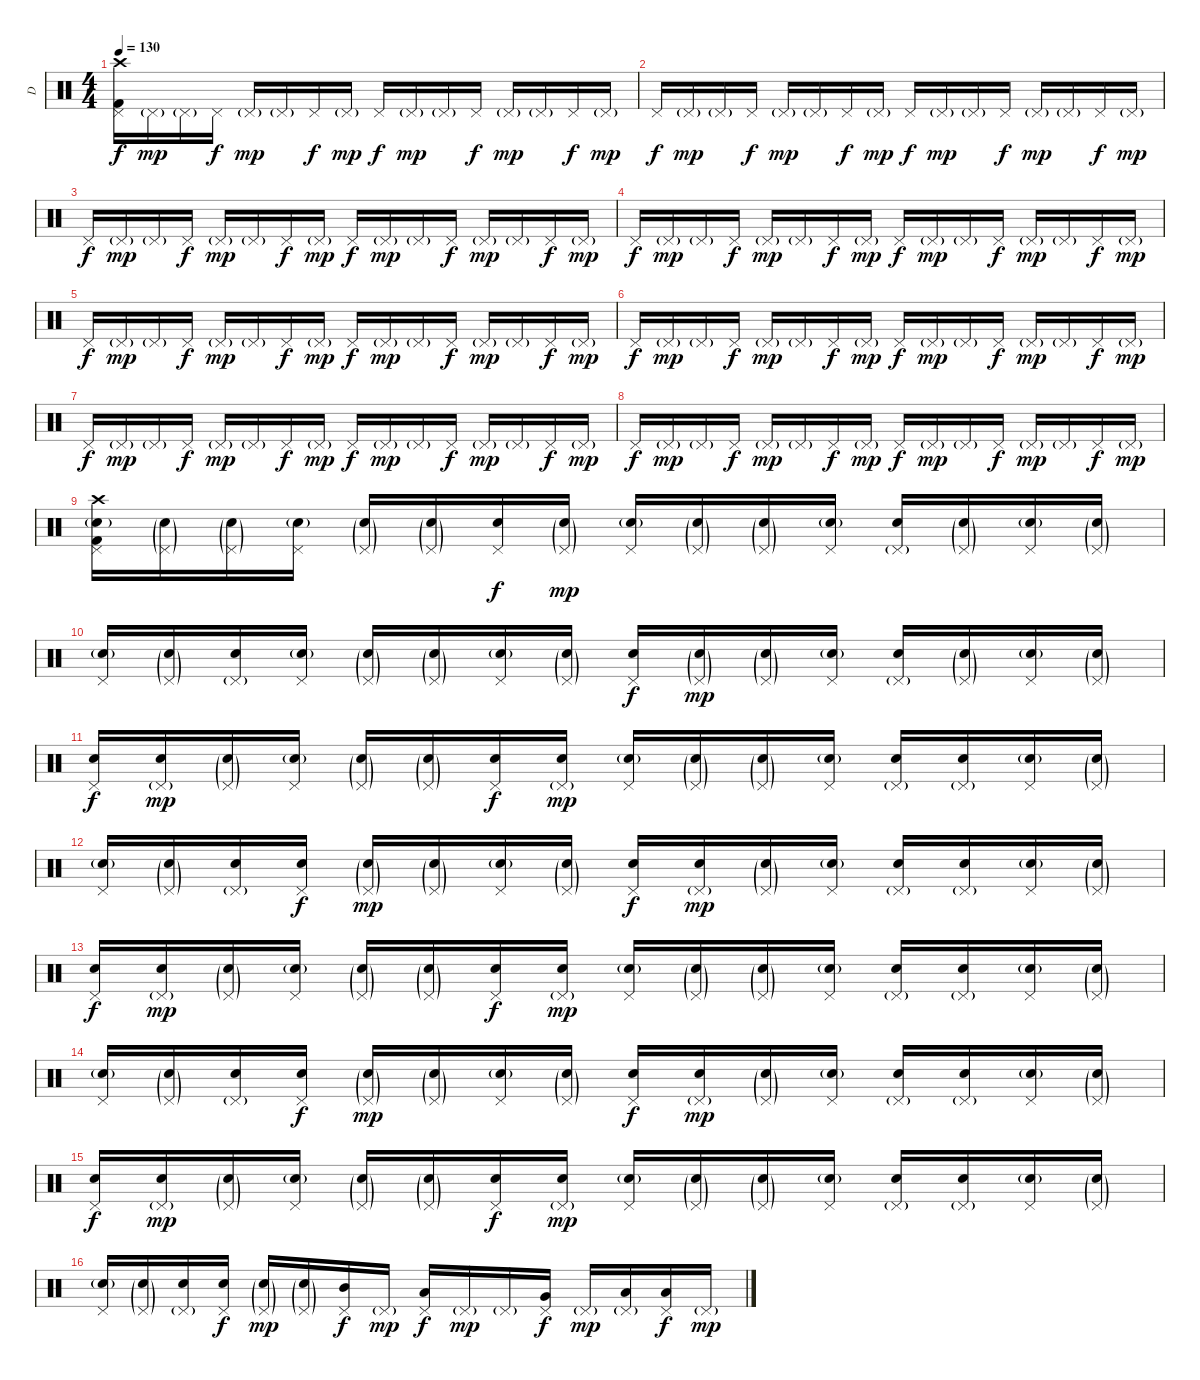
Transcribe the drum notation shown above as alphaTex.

\track ("D" "D") {instrument percussion}
\staff {score}
\articulation defaults
\ts (4 4)
\tempo 130
\clef neutral
\ks c
("Crash high (hit)" "Kick (hit) 2" "Pedal Hi-Hat (hit)").16{dy f} "Pedal Hi-Hat (hit)"{g}.16{dy mp} "Pedal Hi-Hat (hit)"{g}.16 "Pedal Hi-Hat (hit)".16{dy f} "Pedal Hi-Hat (hit)"{g}.16{dy mp} "Pedal Hi-Hat (hit)"{g}.16 "Pedal Hi-Hat (hit)".16{dy f} "Pedal Hi-Hat (hit)"{g}.16{dy mp} "Pedal Hi-Hat (hit)".16{dy f} "Pedal Hi-Hat (hit)"{g}.16{dy mp} "Pedal Hi-Hat (hit)"{g}.16 "Pedal Hi-Hat (hit)".16{dy f} "Pedal Hi-Hat (hit)"{g}.16{dy mp} "Pedal Hi-Hat (hit)"{g}.16 "Pedal Hi-Hat (hit)".16{dy f} "Pedal Hi-Hat (hit)"{g}.16{dy mp} |
"Pedal Hi-Hat (hit)".16{dy f} "Pedal Hi-Hat (hit)"{g}.16{dy mp} "Pedal Hi-Hat (hit)"{g}.16 "Pedal Hi-Hat (hit)".16{dy f} "Pedal Hi-Hat (hit)"{g}.16{dy mp} "Pedal Hi-Hat (hit)"{g}.16 "Pedal Hi-Hat (hit)".16{dy f} "Pedal Hi-Hat (hit)"{g}.16{dy mp} "Pedal Hi-Hat (hit)".16{dy f} "Pedal Hi-Hat (hit)"{g}.16{dy mp} "Pedal Hi-Hat (hit)"{g}.16 "Pedal Hi-Hat (hit)".16{dy f} "Pedal Hi-Hat (hit)"{g}.16{dy mp} "Pedal Hi-Hat (hit)"{g}.16 "Pedal Hi-Hat (hit)".16{dy f} "Pedal Hi-Hat (hit)"{g}.16{dy mp} |
"Pedal Hi-Hat (hit)".16{dy f} "Pedal Hi-Hat (hit)"{g}.16{dy mp} "Pedal Hi-Hat (hit)"{g}.16 "Pedal Hi-Hat (hit)".16{dy f} "Pedal Hi-Hat (hit)"{g}.16{dy mp} "Pedal Hi-Hat (hit)"{g}.16 "Pedal Hi-Hat (hit)".16{dy f} "Pedal Hi-Hat (hit)"{g}.16{dy mp} "Pedal Hi-Hat (hit)".16{dy f} "Pedal Hi-Hat (hit)"{g}.16{dy mp} "Pedal Hi-Hat (hit)"{g}.16 "Pedal Hi-Hat (hit)".16{dy f} "Pedal Hi-Hat (hit)"{g}.16{dy mp} "Pedal Hi-Hat (hit)"{g}.16 "Pedal Hi-Hat (hit)".16{dy f} "Pedal Hi-Hat (hit)"{g}.16{dy mp} |
"Pedal Hi-Hat (hit)".16{dy f} "Pedal Hi-Hat (hit)"{g}.16{dy mp} "Pedal Hi-Hat (hit)"{g}.16 "Pedal Hi-Hat (hit)".16{dy f} "Pedal Hi-Hat (hit)"{g}.16{dy mp} "Pedal Hi-Hat (hit)"{g}.16 "Pedal Hi-Hat (hit)".16{dy f} "Pedal Hi-Hat (hit)"{g}.16{dy mp} "Pedal Hi-Hat (hit)".16{dy f} "Pedal Hi-Hat (hit)"{g}.16{dy mp} "Pedal Hi-Hat (hit)"{g}.16 "Pedal Hi-Hat (hit)".16{dy f} "Pedal Hi-Hat (hit)"{g}.16{dy mp} "Pedal Hi-Hat (hit)"{g}.16 "Pedal Hi-Hat (hit)".16{dy f} "Pedal Hi-Hat (hit)"{g}.16{dy mp} |
"Pedal Hi-Hat (hit)".16{dy f} "Pedal Hi-Hat (hit)"{g}.16{dy mp} "Pedal Hi-Hat (hit)"{g}.16 "Pedal Hi-Hat (hit)".16{dy f} "Pedal Hi-Hat (hit)"{g}.16{dy mp} "Pedal Hi-Hat (hit)"{g}.16 "Pedal Hi-Hat (hit)".16{dy f} "Pedal Hi-Hat (hit)"{g}.16{dy mp} "Pedal Hi-Hat (hit)".16{dy f} "Pedal Hi-Hat (hit)"{g}.16{dy mp} "Pedal Hi-Hat (hit)"{g}.16 "Pedal Hi-Hat (hit)".16{dy f} "Pedal Hi-Hat (hit)"{g}.16{dy mp} "Pedal Hi-Hat (hit)"{g}.16 "Pedal Hi-Hat (hit)".16{dy f} "Pedal Hi-Hat (hit)"{g}.16{dy mp} |
"Pedal Hi-Hat (hit)".16{dy f} "Pedal Hi-Hat (hit)"{g}.16{dy mp} "Pedal Hi-Hat (hit)"{g}.16 "Pedal Hi-Hat (hit)".16{dy f} "Pedal Hi-Hat (hit)"{g}.16{dy mp} "Pedal Hi-Hat (hit)"{g}.16 "Pedal Hi-Hat (hit)".16{dy f} "Pedal Hi-Hat (hit)"{g}.16{dy mp} "Pedal Hi-Hat (hit)".16{dy f} "Pedal Hi-Hat (hit)"{g}.16{dy mp} "Pedal Hi-Hat (hit)"{g}.16 "Pedal Hi-Hat (hit)".16{dy f} "Pedal Hi-Hat (hit)"{g}.16{dy mp} "Pedal Hi-Hat (hit)"{g}.16 "Pedal Hi-Hat (hit)".16{dy f} "Pedal Hi-Hat (hit)"{g}.16{dy mp} |
"Pedal Hi-Hat (hit)".16{dy f} "Pedal Hi-Hat (hit)"{g}.16{dy mp} "Pedal Hi-Hat (hit)"{g}.16 "Pedal Hi-Hat (hit)".16{dy f} "Pedal Hi-Hat (hit)"{g}.16{dy mp} "Pedal Hi-Hat (hit)"{g}.16 "Pedal Hi-Hat (hit)".16{dy f} "Pedal Hi-Hat (hit)"{g}.16{dy mp} "Pedal Hi-Hat (hit)".16{dy f} "Pedal Hi-Hat (hit)"{g}.16{dy mp} "Pedal Hi-Hat (hit)"{g}.16 "Pedal Hi-Hat (hit)".16{dy f} "Pedal Hi-Hat (hit)"{g}.16{dy mp} "Pedal Hi-Hat (hit)"{g}.16 "Pedal Hi-Hat (hit)".16{dy f} "Pedal Hi-Hat (hit)"{g}.16{dy mp} |
"Pedal Hi-Hat (hit)".16{dy f} "Pedal Hi-Hat (hit)"{g}.16{dy mp} "Pedal Hi-Hat (hit)"{g}.16 "Pedal Hi-Hat (hit)".16{dy f} "Pedal Hi-Hat (hit)"{g}.16{dy mp} "Pedal Hi-Hat (hit)"{g}.16 "Pedal Hi-Hat (hit)".16{dy f} "Pedal Hi-Hat (hit)"{g}.16{dy mp} "Pedal Hi-Hat (hit)".16{dy f} "Pedal Hi-Hat (hit)"{g}.16{dy mp} "Pedal Hi-Hat (hit)"{g}.16 "Pedal Hi-Hat (hit)".16{dy f} "Pedal Hi-Hat (hit)"{g}.16{dy mp} "Pedal Hi-Hat (hit)"{g}.16 "Pedal Hi-Hat (hit)".16{dy f} "Pedal Hi-Hat (hit)"{g}.16{dy mp} |
("Crash high (hit)" "Electric Snare (hit)"{g} "Kick (hit) 2" "Pedal Hi-Hat (hit)").16 ("Electric Snare (hit)"{g} "Pedal Hi-Hat (hit)"{g}).16 ("Electric Snare (hit)"{g} "Pedal Hi-Hat (hit)"{g}).16 ("Electric Snare (hit)"{g} "Pedal Hi-Hat (hit)").16 ("Electric Snare (hit)"{g} "Pedal Hi-Hat (hit)"{g}).16 ("Electric Snare (hit)"{g} "Pedal Hi-Hat (hit)"{g}).16 ("Electric Snare (hit)" "Pedal Hi-Hat (hit)").16{dy f} ("Electric Snare (hit)"{g} "Pedal Hi-Hat (hit)"{g}).16{dy mp} ("Electric Snare (hit)"{g} "Pedal Hi-Hat (hit)").16 ("Electric Snare (hit)"{g} "Pedal Hi-Hat (hit)"{g}).16 ("Electric Snare (hit)"{g} "Pedal Hi-Hat (hit)"{g}).16 ("Electric Snare (hit)"{g} "Pedal Hi-Hat (hit)").16 ("Electric Snare (hit)" "Pedal Hi-Hat (hit)"{g}).16 ("Electric Snare (hit)"{g} "Pedal Hi-Hat (hit)"{g}).16 ("Electric Snare (hit)"{g} "Pedal Hi-Hat (hit)").16 ("Electric Snare (hit)"{g} "Pedal Hi-Hat (hit)"{g}).16 |
("Electric Snare (hit)"{g} "Pedal Hi-Hat (hit)").16 ("Electric Snare (hit)"{g} "Pedal Hi-Hat (hit)"{g}).16 ("Electric Snare (hit)" "Pedal Hi-Hat (hit)"{g}).16 ("Electric Snare (hit)"{g} "Pedal Hi-Hat (hit)").16 ("Electric Snare (hit)"{g} "Pedal Hi-Hat (hit)"{g}).16 ("Electric Snare (hit)"{g} "Pedal Hi-Hat (hit)"{g}).16 ("Electric Snare (hit)"{g} "Pedal Hi-Hat (hit)").16 ("Electric Snare (hit)"{g} "Pedal Hi-Hat (hit)"{g}).16 ("Electric Snare (hit)" "Pedal Hi-Hat (hit)").16{dy f} ("Electric Snare (hit)"{g} "Pedal Hi-Hat (hit)"{g}).16{dy mp} ("Electric Snare (hit)"{g} "Pedal Hi-Hat (hit)"{g}).16 ("Electric Snare (hit)"{g} "Pedal Hi-Hat (hit)").16 ("Electric Snare (hit)" "Pedal Hi-Hat (hit)"{g}).16 ("Electric Snare (hit)"{g} "Pedal Hi-Hat (hit)"{g}).16 ("Electric Snare (hit)"{g} "Pedal Hi-Hat (hit)").16 ("Electric Snare (hit)"{g} "Pedal Hi-Hat (hit)"{g}).16 |
("Electric Snare (hit)" "Pedal Hi-Hat (hit)").16{dy f} ("Electric Snare (hit)" "Pedal Hi-Hat (hit)"{g}).16{dy mp} ("Electric Snare (hit)"{g} "Pedal Hi-Hat (hit)"{g}).16 ("Electric Snare (hit)"{g} "Pedal Hi-Hat (hit)").16 ("Electric Snare (hit)"{g} "Pedal Hi-Hat (hit)"{g}).16 ("Electric Snare (hit)"{g} "Pedal Hi-Hat (hit)"{g}).16 ("Electric Snare (hit)" "Pedal Hi-Hat (hit)").16{dy f} ("Electric Snare (hit)" "Pedal Hi-Hat (hit)"{g}).16{dy mp} ("Electric Snare (hit)"{g} "Pedal Hi-Hat (hit)").16 ("Electric Snare (hit)"{g} "Pedal Hi-Hat (hit)"{g}).16 ("Electric Snare (hit)"{g} "Pedal Hi-Hat (hit)"{g}).16 ("Electric Snare (hit)"{g} "Pedal Hi-Hat (hit)").16 ("Electric Snare (hit)" "Pedal Hi-Hat (hit)"{g}).16 ("Electric Snare (hit)" "Pedal Hi-Hat (hit)"{g}).16 ("Electric Snare (hit)"{g} "Pedal Hi-Hat (hit)").16 ("Electric Snare (hit)"{g} "Pedal Hi-Hat (hit)"{g}).16 |
("Electric Snare (hit)"{g} "Pedal Hi-Hat (hit)").16 ("Electric Snare (hit)"{g} "Pedal Hi-Hat (hit)"{g}).16 ("Electric Snare (hit)" "Pedal Hi-Hat (hit)"{g}).16 ("Electric Snare (hit)" "Pedal Hi-Hat (hit)").16{dy f} ("Electric Snare (hit)"{g} "Pedal Hi-Hat (hit)"{g}).16{dy mp} ("Electric Snare (hit)"{g} "Pedal Hi-Hat (hit)"{g}).16 ("Electric Snare (hit)"{g} "Pedal Hi-Hat (hit)").16 ("Electric Snare (hit)"{g} "Pedal Hi-Hat (hit)"{g}).16 ("Electric Snare (hit)" "Pedal Hi-Hat (hit)").16{dy f} ("Electric Snare (hit)" "Pedal Hi-Hat (hit)"{g}).16{dy mp} ("Electric Snare (hit)"{g} "Pedal Hi-Hat (hit)"{g}).16 ("Electric Snare (hit)"{g} "Pedal Hi-Hat (hit)").16 ("Electric Snare (hit)" "Pedal Hi-Hat (hit)"{g}).16 ("Electric Snare (hit)" "Pedal Hi-Hat (hit)"{g}).16 ("Electric Snare (hit)"{g} "Pedal Hi-Hat (hit)").16 ("Electric Snare (hit)"{g} "Pedal Hi-Hat (hit)"{g}).16 |
("Electric Snare (hit)" "Pedal Hi-Hat (hit)").16{dy f} ("Electric Snare (hit)" "Pedal Hi-Hat (hit)"{g}).16{dy mp} ("Electric Snare (hit)"{g} "Pedal Hi-Hat (hit)"{g}).16 ("Electric Snare (hit)"{g} "Pedal Hi-Hat (hit)").16 ("Electric Snare (hit)"{g} "Pedal Hi-Hat (hit)"{g}).16 ("Electric Snare (hit)"{g} "Pedal Hi-Hat (hit)"{g}).16 ("Electric Snare (hit)" "Pedal Hi-Hat (hit)").16{dy f} ("Electric Snare (hit)" "Pedal Hi-Hat (hit)"{g}).16{dy mp} ("Electric Snare (hit)"{g} "Pedal Hi-Hat (hit)").16 ("Electric Snare (hit)"{g} "Pedal Hi-Hat (hit)"{g}).16 ("Electric Snare (hit)"{g} "Pedal Hi-Hat (hit)"{g}).16 ("Electric Snare (hit)"{g} "Pedal Hi-Hat (hit)").16 ("Electric Snare (hit)" "Pedal Hi-Hat (hit)"{g}).16 ("Electric Snare (hit)" "Pedal Hi-Hat (hit)"{g}).16 ("Electric Snare (hit)"{g} "Pedal Hi-Hat (hit)").16 ("Electric Snare (hit)"{g} "Pedal Hi-Hat (hit)"{g}).16 |
("Electric Snare (hit)"{g} "Pedal Hi-Hat (hit)").16 ("Electric Snare (hit)"{g} "Pedal Hi-Hat (hit)"{g}).16 ("Electric Snare (hit)" "Pedal Hi-Hat (hit)"{g}).16 ("Electric Snare (hit)" "Pedal Hi-Hat (hit)").16{dy f} ("Electric Snare (hit)"{g} "Pedal Hi-Hat (hit)"{g}).16{dy mp} ("Electric Snare (hit)"{g} "Pedal Hi-Hat (hit)"{g}).16 ("Electric Snare (hit)"{g} "Pedal Hi-Hat (hit)").16 ("Electric Snare (hit)"{g} "Pedal Hi-Hat (hit)"{g}).16 ("Electric Snare (hit)" "Pedal Hi-Hat (hit)").16{dy f} ("Electric Snare (hit)" "Pedal Hi-Hat (hit)"{g}).16{dy mp} ("Electric Snare (hit)"{g} "Pedal Hi-Hat (hit)"{g}).16 ("Electric Snare (hit)"{g} "Pedal Hi-Hat (hit)").16 ("Electric Snare (hit)" "Pedal Hi-Hat (hit)"{g}).16 ("Electric Snare (hit)" "Pedal Hi-Hat (hit)"{g}).16 ("Electric Snare (hit)"{g} "Pedal Hi-Hat (hit)").16 ("Electric Snare (hit)"{g} "Pedal Hi-Hat (hit)"{g}).16 |
("Electric Snare (hit)" "Pedal Hi-Hat (hit)").16{dy f} ("Electric Snare (hit)" "Pedal Hi-Hat (hit)"{g}).16{dy mp} ("Electric Snare (hit)"{g} "Pedal Hi-Hat (hit)"{g}).16 ("Electric Snare (hit)"{g} "Pedal Hi-Hat (hit)").16 ("Electric Snare (hit)"{g} "Pedal Hi-Hat (hit)"{g}).16 ("Electric Snare (hit)"{g} "Pedal Hi-Hat (hit)"{g}).16 ("Electric Snare (hit)" "Pedal Hi-Hat (hit)").16{dy f} ("Electric Snare (hit)" "Pedal Hi-Hat (hit)"{g}).16{dy mp} ("Electric Snare (hit)"{g} "Pedal Hi-Hat (hit)").16 ("Electric Snare (hit)"{g} "Pedal Hi-Hat (hit)"{g}).16 ("Electric Snare (hit)"{g} "Pedal Hi-Hat (hit)"{g}).16 ("Electric Snare (hit)"{g} "Pedal Hi-Hat (hit)").16 ("Electric Snare (hit)" "Pedal Hi-Hat (hit)"{g}).16 ("Electric Snare (hit)" "Pedal Hi-Hat (hit)"{g}).16 ("Electric Snare (hit)"{g} "Pedal Hi-Hat (hit)").16 ("Electric Snare (hit)"{g} "Pedal Hi-Hat (hit)"{g}).16 |
("Electric Snare (hit)"{g} "Pedal Hi-Hat (hit)").16 ("Electric Snare (hit)"{g} "Pedal Hi-Hat (hit)"{g}).16 ("Electric Snare (hit)" "Pedal Hi-Hat (hit)"{g}).16 ("Electric Snare (hit)" "Pedal Hi-Hat (hit)").16{dy f} ("Electric Snare (hit)"{g} "Pedal Hi-Hat (hit)"{g}).16{dy mp} ("Electric Snare (hit)"{g} "Pedal Hi-Hat (hit)"{g}).16 ("Mid Tom (hit)" "Pedal Hi-Hat (hit)").16{dy f} "Pedal Hi-Hat (hit)"{g}.16{dy mp} ("Low Tom (hit)" "Pedal Hi-Hat (hit)").16{dy f} "Pedal Hi-Hat (hit)"{g}.16{dy mp} "Pedal Hi-Hat (hit)"{g}.16 ("Very Low Tom (hit)" "Pedal Hi-Hat (hit)").16{dy f} "Pedal Hi-Hat (hit)"{g}.16{dy mp} ("Low Floor Tom (hit)" "Pedal Hi-Hat (hit)"{g}).16 ("Low Floor Tom (hit)" "Pedal Hi-Hat (hit)").16{dy f} "Pedal Hi-Hat (hit)"{g}.16{dy mp}
